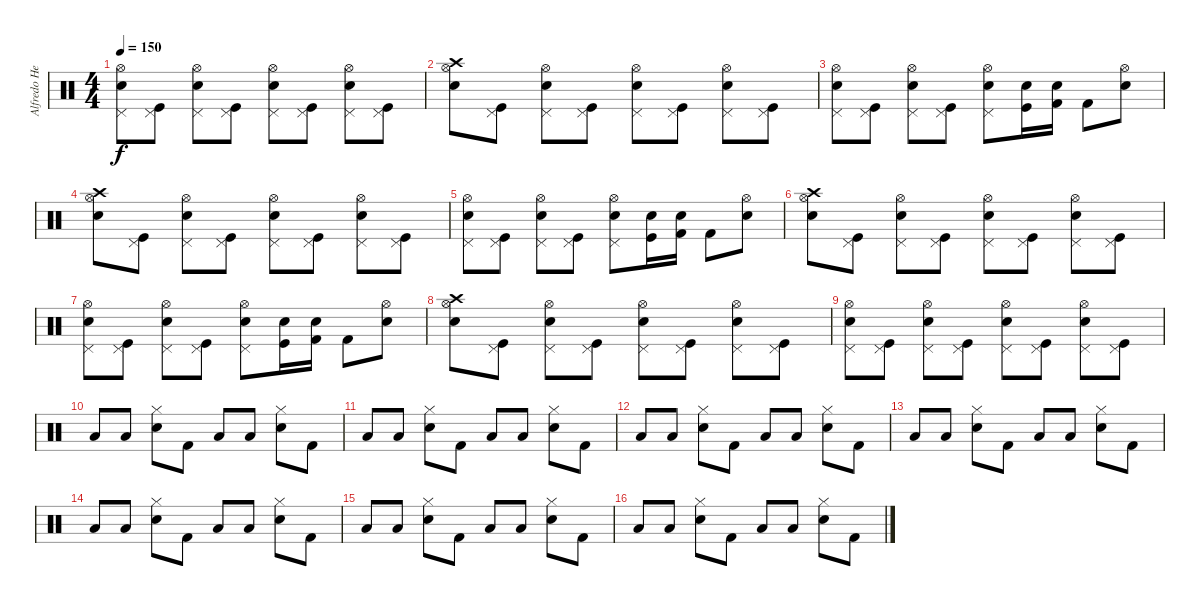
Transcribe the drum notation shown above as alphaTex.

\track ("Alfredo Hernandez" "Alfredo He") {instrument percussion}
\staff {score}
\articulation defaults
\ts (4 4)
\tempo 150
\clef neutral
\ks c
("Electric Snare (hit)" "Pedal Hi-Hat (hit)" "Hi-Hat (open)").8{dy f} ("Kick (hit)" "Pedal Hi-Hat (hit)").8 ("Electric Snare (hit)" "Pedal Hi-Hat (hit)" "Hi-Hat (open)").8 ("Kick (hit)" "Pedal Hi-Hat (hit)").8 ("Electric Snare (hit)" "Pedal Hi-Hat (hit)" "Hi-Hat (open)").8 ("Kick (hit)" "Pedal Hi-Hat (hit)").8 ("Electric Snare (hit)" "Pedal Hi-Hat (hit)" "Hi-Hat (open)").8 ("Kick (hit)" "Pedal Hi-Hat (hit)").8 |
("Electric Snare (hit)" "Crash high (hit)" "Hi-Hat (open)").8 ("Kick (hit)" "Pedal Hi-Hat (hit)").8 ("Electric Snare (hit)" "Pedal Hi-Hat (hit)" "Hi-Hat (open)").8 ("Kick (hit)" "Pedal Hi-Hat (hit)").8 ("Electric Snare (hit)" "Pedal Hi-Hat (hit)" "Hi-Hat (open)").8 ("Kick (hit)" "Pedal Hi-Hat (hit)").8 ("Electric Snare (hit)" "Pedal Hi-Hat (hit)" "Hi-Hat (open)").8 ("Kick (hit)" "Pedal Hi-Hat (hit)").8 |
("Electric Snare (hit)" "Pedal Hi-Hat (hit)" "Hi-Hat (open)").8 ("Kick (hit)" "Pedal Hi-Hat (hit)").8 ("Electric Snare (hit)" "Pedal Hi-Hat (hit)" "Hi-Hat (open)").8 ("Kick (hit)" "Pedal Hi-Hat (hit)").8 ("Electric Snare (hit)" "Pedal Hi-Hat (hit)" "Hi-Hat (open)").8 ("Kick (hit)" "Electric Snare (hit)").16 ("Kick (hit) 2" "Electric Snare (hit)").16 "Kick (hit) 2".8 ("Electric Snare (hit)" "Hi-Hat (open)").8 |
("Electric Snare (hit)" "Crash high (hit)" "Hi-Hat (open)").8 ("Kick (hit)" "Pedal Hi-Hat (hit)").8 ("Electric Snare (hit)" "Pedal Hi-Hat (hit)" "Hi-Hat (open)").8 ("Kick (hit)" "Pedal Hi-Hat (hit)").8 ("Electric Snare (hit)" "Pedal Hi-Hat (hit)" "Hi-Hat (open)").8 ("Kick (hit)" "Pedal Hi-Hat (hit)").8 ("Electric Snare (hit)" "Pedal Hi-Hat (hit)" "Hi-Hat (open)").8 ("Kick (hit)" "Pedal Hi-Hat (hit)").8 |
("Electric Snare (hit)" "Pedal Hi-Hat (hit)" "Hi-Hat (open)").8 ("Kick (hit)" "Pedal Hi-Hat (hit)").8 ("Electric Snare (hit)" "Pedal Hi-Hat (hit)" "Hi-Hat (open)").8 ("Kick (hit)" "Pedal Hi-Hat (hit)").8 ("Electric Snare (hit)" "Pedal Hi-Hat (hit)" "Hi-Hat (open)").8 ("Kick (hit)" "Electric Snare (hit)").16 ("Kick (hit) 2" "Electric Snare (hit)").16 "Kick (hit) 2".8 ("Electric Snare (hit)" "Hi-Hat (open)").8 |
("Electric Snare (hit)" "Crash high (hit)" "Hi-Hat (open)").8 ("Kick (hit)" "Pedal Hi-Hat (hit)").8 ("Electric Snare (hit)" "Pedal Hi-Hat (hit)" "Hi-Hat (open)").8 ("Kick (hit)" "Pedal Hi-Hat (hit)").8 ("Electric Snare (hit)" "Pedal Hi-Hat (hit)" "Hi-Hat (open)").8 ("Kick (hit)" "Pedal Hi-Hat (hit)").8 ("Electric Snare (hit)" "Pedal Hi-Hat (hit)" "Hi-Hat (open)").8 ("Kick (hit)" "Pedal Hi-Hat (hit)").8 |
("Electric Snare (hit)" "Pedal Hi-Hat (hit)" "Hi-Hat (open)").8 ("Kick (hit)" "Pedal Hi-Hat (hit)").8 ("Electric Snare (hit)" "Pedal Hi-Hat (hit)" "Hi-Hat (open)").8 ("Kick (hit)" "Pedal Hi-Hat (hit)").8 ("Electric Snare (hit)" "Pedal Hi-Hat (hit)" "Hi-Hat (open)").8 ("Kick (hit)" "Electric Snare (hit)").16 ("Kick (hit) 2" "Electric Snare (hit)").16 "Kick (hit) 2".8 ("Electric Snare (hit)" "Hi-Hat (open)").8 |
("Electric Snare (hit)" "Crash high (hit)" "Hi-Hat (open)").8 ("Kick (hit)" "Pedal Hi-Hat (hit)").8 ("Electric Snare (hit)" "Pedal Hi-Hat (hit)" "Hi-Hat (open)").8 ("Kick (hit)" "Pedal Hi-Hat (hit)").8 ("Electric Snare (hit)" "Pedal Hi-Hat (hit)" "Hi-Hat (open)").8 ("Kick (hit)" "Pedal Hi-Hat (hit)").8 ("Electric Snare (hit)" "Pedal Hi-Hat (hit)" "Hi-Hat (open)").8 ("Kick (hit)" "Pedal Hi-Hat (hit)").8 |
("Electric Snare (hit)" "Pedal Hi-Hat (hit)" "Hi-Hat (open)").8 ("Kick (hit)" "Pedal Hi-Hat (hit)").8 ("Electric Snare (hit)" "Pedal Hi-Hat (hit)" "Hi-Hat (open)").8 ("Kick (hit)" "Pedal Hi-Hat (hit)").8 ("Electric Snare (hit)" "Pedal Hi-Hat (hit)" "Hi-Hat (open)").8 ("Kick (hit)" "Pedal Hi-Hat (hit)").8 ("Electric Snare (hit)" "Pedal Hi-Hat (hit)" "Hi-Hat (open)").8 ("Kick (hit)" "Pedal Hi-Hat (hit)").8 |
\section ("" "")
"Low Tom (hit)".8 "Low Tom (hit)".8 ("Snare (hit) 2" "Hi-Hat (closed)").8 "Kick (hit) 2".8 "Low Tom (hit)".8 "Low Tom (hit)".8 ("Snare (hit) 2" "Hi-Hat (closed)").8 "Kick (hit) 2".8 |
"Low Tom (hit)".8 "Low Tom (hit)".8 ("Snare (hit) 2" "Hi-Hat (closed)").8 "Kick (hit) 2".8 "Low Tom (hit)".8 "Low Tom (hit)".8 ("Snare (hit) 2" "Hi-Hat (closed)").8 "Kick (hit) 2".8 |
"Low Tom (hit)".8 "Low Tom (hit)".8 ("Snare (hit) 2" "Hi-Hat (closed)").8 "Kick (hit) 2".8 "Low Tom (hit)".8 "Low Tom (hit)".8 ("Snare (hit) 2" "Hi-Hat (closed)").8 "Kick (hit) 2".8 |
"Low Tom (hit)".8 "Low Tom (hit)".8 ("Snare (hit) 2" "Hi-Hat (closed)").8 "Kick (hit) 2".8 "Low Tom (hit)".8 "Low Tom (hit)".8 ("Snare (hit) 2" "Hi-Hat (closed)").8 "Kick (hit) 2".8 |
"Low Tom (hit)".8 "Low Tom (hit)".8 ("Snare (hit) 2" "Hi-Hat (closed)").8 "Kick (hit) 2".8 "Low Tom (hit)".8 "Low Tom (hit)".8 ("Snare (hit) 2" "Hi-Hat (closed)").8 "Kick (hit) 2".8 |
"Low Tom (hit)".8 "Low Tom (hit)".8 ("Snare (hit) 2" "Hi-Hat (closed)").8 "Kick (hit) 2".8 "Low Tom (hit)".8 "Low Tom (hit)".8 ("Snare (hit) 2" "Hi-Hat (closed)").8 "Kick (hit) 2".8 |
"Low Tom (hit)".8 "Low Tom (hit)".8 ("Snare (hit) 2" "Hi-Hat (closed)").8 "Kick (hit) 2".8 "Low Tom (hit)".8 "Low Tom (hit)".8 ("Snare (hit) 2" "Hi-Hat (closed)").8 "Kick (hit) 2".8
